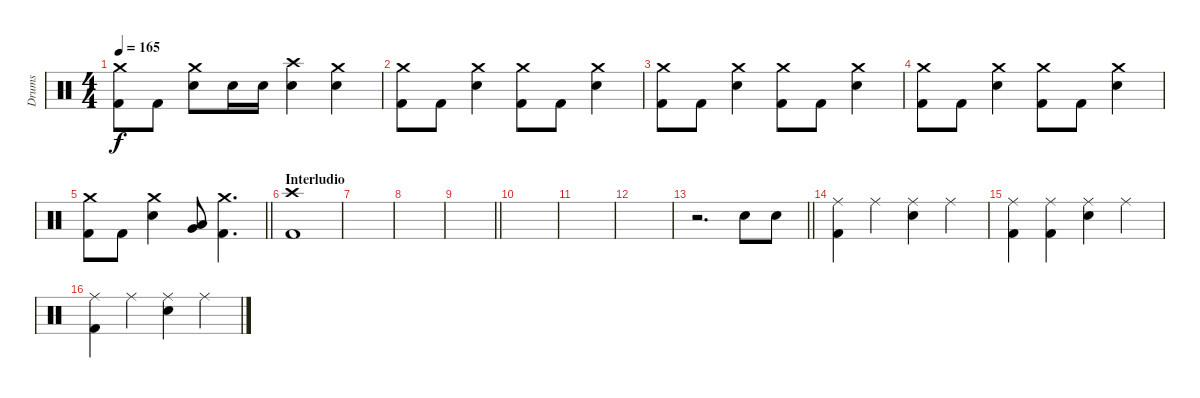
\track ("Drums" "Drums") {instrument percussion}
\staff {score}
\articulation defaults
\ts (4 4)
\tempo 165
\clef neutral
\ks c
("Crash medium (hit)" "Kick (hit) 2").8{dy f} "Kick (hit) 2".8 ("Crash medium (hit)" "Electric Snare (hit)").8 "Electric Snare (hit)".16 "Electric Snare (hit)".16 ("Crash high (hit)" "Electric Snare (hit)").4 ("Crash medium (hit)" "Electric Snare (hit)").4 |
("Crash medium (hit)" "Kick (hit) 2").8 "Kick (hit) 2".8 ("Crash medium (hit)" "Electric Snare (hit)").4 ("Crash medium (hit)" "Kick (hit) 2").8 "Kick (hit) 2".8 ("Crash medium (hit)" "Electric Snare (hit)").4 |
("Crash medium (hit)" "Kick (hit) 2").8 "Kick (hit) 2".8 ("Crash medium (hit)" "Electric Snare (hit)").4 ("Crash medium (hit)" "Kick (hit) 2").8 "Kick (hit) 2".8 ("Crash medium (hit)" "Electric Snare (hit)").4 |
("Crash medium (hit)" "Kick (hit) 2").8 "Kick (hit) 2".8 ("Crash medium (hit)" "Electric Snare (hit)").4 ("Crash medium (hit)" "Kick (hit) 2").8 "Kick (hit) 2".8 ("Crash medium (hit)" "Electric Snare (hit)").4 |
\barLineRight lightlight
("Crash medium (hit)" "Kick (hit) 2").8 "Kick (hit) 2".8 ("Crash medium (hit)" "Electric Snare (hit)").4 ("Very Low Tom (hit)" "Low Floor Tom (hit)").8 ("Crash medium (hit)" "Kick (hit) 2").4{d} |
\section ("" "Interludio")
("Crash high (hit)" "Kick (hit) 2").1 |
|
|
\barLineRight lightlight
|
|
|
|
\barLineRight lightlight
r.2{d} "Electric Snare (hit)".8 "Electric Snare (hit)".8 |
("Ride (middle)" "Kick (hit) 2").4 "Ride (middle)".4 ("Ride (middle)" "Electric Snare (hit)").4 "Ride (middle)".4 |
("Ride (middle)" "Kick (hit) 2").4 ("Ride (middle)" "Kick (hit) 2").4 ("Ride (middle)" "Electric Snare (hit)").4 "Ride (middle)".4 |
("Ride (middle)" "Kick (hit) 2").4 "Ride (middle)".4 ("Ride (middle)" "Electric Snare (hit)").4 "Ride (middle)".4
